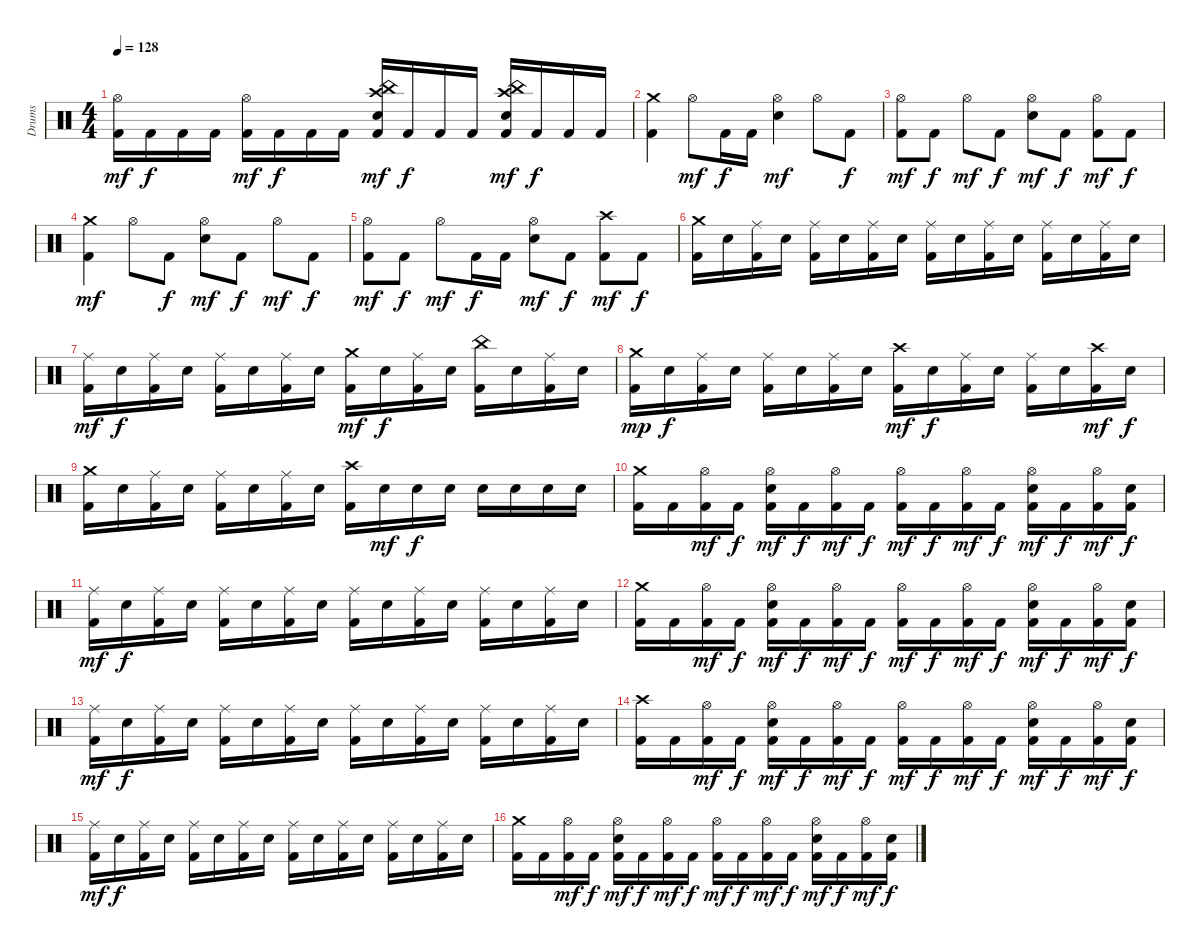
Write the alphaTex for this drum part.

\track ("Drums" "Drums") {instrument percussion}
\staff {score}
\articulation defaults
\ts (4 4)
\tempo 128
\clef neutral
\ks c
("Hi-Hat (open)" "Kick (hit) 2").16{dy mf} "Kick (hit) 2".16{dy f} "Kick (hit) 2".16 "Kick (hit) 2".16 ("Hi-Hat (open)" "Kick (hit) 2").16{dy mf} "Kick (hit) 2".16{dy f} "Kick (hit) 2".16 "Kick (hit) 2".16 ("Crash high (hit)" "China (hit)" "Electric Snare (hit)" "Kick (hit) 2").16{dy mf} "Kick (hit) 2".16{dy f} "Kick (hit) 2".16 "Kick (hit) 2".16 ("Crash high (hit)" "China (hit)" "Electric Snare (hit)" "Kick (hit) 2").16{dy mf} "Kick (hit) 2".16{dy f} "Kick (hit) 2".16 "Kick (hit) 2".16 |
("Crash medium (hit)" "Kick (hit) 2").4 "Hi-Hat (open)".8{dy mf} "Kick (hit) 2".16{dy f} "Kick (hit) 2".16 ("Hi-Hat (open)" "Electric Snare (hit)").4{dy mf} "Hi-Hat (open)".8 "Kick (hit) 2".8{dy f} |
("Hi-Hat (open)" "Kick (hit) 2").8{dy mf} "Kick (hit) 2".8{dy f} "Hi-Hat (open)".8{dy mf} "Kick (hit) 2".8{dy f} ("Hi-Hat (open)" "Electric Snare (hit)").8{dy mf} "Kick (hit) 2".8{dy f} ("Hi-Hat (open)" "Kick (hit) 2").8{dy mf} "Kick (hit) 2".8{dy f} |
("Crash medium (hit)" "Kick (hit) 2").4{dy mf} "Hi-Hat (open)".8 "Kick (hit) 2".8{dy f} ("Hi-Hat (open)" "Electric Snare (hit)").8{dy mf} "Kick (hit) 2".8{dy f} "Hi-Hat (open)".8{dy mf} "Kick (hit) 2".8{dy f} |
("Hi-Hat (open)" "Kick (hit) 2").8{dy mf} "Kick (hit) 2".8{dy f} "Hi-Hat (open)".8{dy mf} "Kick (hit) 2".16{dy f} "Kick (hit) 2".16 ("Hi-Hat (open)" "Electric Snare (hit)").8{dy mf} "Kick (hit) 2".8{dy f} ("Crash high (hit)" "Kick (hit) 2").8{dy mf} "Kick (hit) 2".8{dy f} |
("Crash medium (hit)" "Kick (hit) 2").16 "Electric Snare (hit)".16 ("Ride (middle)" "Kick (hit) 2").16 "Electric Snare (hit)".16 ("Ride (middle)" "Kick (hit) 2").16 "Electric Snare (hit)".16 ("Ride (middle)" "Kick (hit) 2").16 "Electric Snare (hit)".16 ("Ride (middle)" "Kick (hit) 2").16 "Electric Snare (hit)".16 ("Ride (middle)" "Kick (hit) 2").16 "Electric Snare (hit)".16 ("Ride (middle)" "Kick (hit) 2").16 "Electric Snare (hit)".16 ("Ride (middle)" "Kick (hit) 2").16 "Electric Snare (hit)".16 |
("Ride (middle)" "Kick (hit) 2").16{dy mf} "Electric Snare (hit)".16{dy f} ("Ride (middle)" "Kick (hit) 2").16 "Electric Snare (hit)".16 ("Ride (middle)" "Kick (hit) 2").16 "Electric Snare (hit)".16 ("Ride (middle)" "Kick (hit) 2").16 "Electric Snare (hit)".16 ("Crash medium (hit)" "Kick (hit) 2").16{dy mf} "Electric Snare (hit)".16{dy f} ("Ride (middle)" "Kick (hit) 2").16 "Electric Snare (hit)".16 ("China (hit)" "Kick (hit) 2").16 "Electric Snare (hit)".16 ("Ride (middle)" "Kick (hit) 2").16 "Electric Snare (hit)".16 |
("Crash medium (hit)" "Kick (hit) 2").16{dy mp} "Electric Snare (hit)".16{dy f} ("Ride (middle)" "Kick (hit) 2").16 "Electric Snare (hit)".16 ("Ride (middle)" "Kick (hit) 2").16 "Electric Snare (hit)".16 ("Ride (middle)" "Kick (hit) 2").16 "Electric Snare (hit)".16 ("Crash high (hit)" "Kick (hit) 2").16{dy mf} "Electric Snare (hit)".16{dy f} ("Ride (middle)" "Kick (hit) 2").16 "Electric Snare (hit)".16 ("Ride (middle)" "Kick (hit) 2").16 "Electric Snare (hit)".16 ("Crash high (hit)" "Kick (hit) 2").16{dy mf} "Electric Snare (hit)".16{dy f} |
("Crash medium (hit)" "Kick (hit) 2").16 "Electric Snare (hit)".16 ("Ride (middle)" "Kick (hit) 2").16 "Electric Snare (hit)".16 ("Ride (middle)" "Kick (hit) 2").16 "Electric Snare (hit)".16 ("Ride (middle)" "Kick (hit) 2").16 "Electric Snare (hit)".16 ("Crash high (hit)" "Kick (hit) 2").16 "Electric Snare (hit)".16{dy mf} "Electric Snare (hit)".16{dy f} "Electric Snare (hit)".16 "Electric Snare (hit)".16 "Electric Snare (hit)".16 "Electric Snare (hit)".16 "Electric Snare (hit)".16 |
("Crash medium (hit)" "Kick (hit) 2").16 "Kick (hit) 2".16 ("Hi-Hat (open)" "Kick (hit) 2").16{dy mf} "Kick (hit) 2".16{dy f} ("Hi-Hat (open)" "Electric Snare (hit)" "Kick (hit) 2").16{dy mf} "Kick (hit) 2".16{dy f} ("Hi-Hat (open)" "Kick (hit) 2").16{dy mf} "Kick (hit) 2".16{dy f} ("Hi-Hat (open)" "Kick (hit) 2").16{dy mf} "Kick (hit) 2".16{dy f} ("Hi-Hat (open)" "Kick (hit) 2").16{dy mf} "Kick (hit) 2".16{dy f} ("Hi-Hat (open)" "Electric Snare (hit)" "Kick (hit) 2").16{dy mf} "Kick (hit) 2".16{dy f} ("Hi-Hat (open)" "Kick (hit) 2").16{dy mf} ("Electric Snare (hit)" "Kick (hit) 2").16{dy f} |
("Ride (middle)" "Kick (hit) 2").16{dy mf} "Electric Snare (hit)".16{dy f} ("Ride (middle)" "Kick (hit) 2").16 "Electric Snare (hit)".16 ("Ride (middle)" "Kick (hit) 2").16 "Electric Snare (hit)".16 ("Ride (middle)" "Kick (hit) 2").16 "Electric Snare (hit)".16 ("Ride (middle)" "Kick (hit) 2").16 "Electric Snare (hit)".16 ("Ride (middle)" "Kick (hit) 2").16 "Electric Snare (hit)".16 ("Ride (middle)" "Kick (hit) 2").16 "Electric Snare (hit)".16 ("Ride (middle)" "Kick (hit) 2").16 "Electric Snare (hit)".16 |
("Crash medium (hit)" "Kick (hit) 2").16 "Kick (hit) 2".16 ("Hi-Hat (open)" "Kick (hit) 2").16{dy mf} "Kick (hit) 2".16{dy f} ("Hi-Hat (open)" "Electric Snare (hit)" "Kick (hit) 2").16{dy mf} "Kick (hit) 2".16{dy f} ("Hi-Hat (open)" "Kick (hit) 2").16{dy mf} "Kick (hit) 2".16{dy f} ("Hi-Hat (open)" "Kick (hit) 2").16{dy mf} "Kick (hit) 2".16{dy f} ("Hi-Hat (open)" "Kick (hit) 2").16{dy mf} "Kick (hit) 2".16{dy f} ("Hi-Hat (open)" "Electric Snare (hit)" "Kick (hit) 2").16{dy mf} "Kick (hit) 2".16{dy f} ("Hi-Hat (open)" "Kick (hit) 2").16{dy mf} ("Electric Snare (hit)" "Kick (hit) 2").16{dy f} |
("Ride (middle)" "Kick (hit) 2").16{dy mf} "Electric Snare (hit)".16{dy f} ("Ride (middle)" "Kick (hit) 2").16 "Electric Snare (hit)".16 ("Ride (middle)" "Kick (hit) 2").16 "Electric Snare (hit)".16 ("Ride (middle)" "Kick (hit) 2").16 "Electric Snare (hit)".16 ("Ride (middle)" "Kick (hit) 2").16 "Electric Snare (hit)".16 ("Ride (middle)" "Kick (hit) 2").16 "Electric Snare (hit)".16 ("Ride (middle)" "Kick (hit) 2").16 "Electric Snare (hit)".16 ("Ride (middle)" "Kick (hit) 2").16 "Electric Snare (hit)".16 |
("Crash high (hit)" "Kick (hit) 2").16 "Kick (hit) 2".16 ("Hi-Hat (open)" "Kick (hit) 2").16{dy mf} "Kick (hit) 2".16{dy f} ("Hi-Hat (open)" "Electric Snare (hit)" "Kick (hit) 2").16{dy mf} "Kick (hit) 2".16{dy f} ("Hi-Hat (open)" "Kick (hit) 2").16{dy mf} "Kick (hit) 2".16{dy f} ("Hi-Hat (open)" "Kick (hit) 2").16{dy mf} "Kick (hit) 2".16{dy f} ("Hi-Hat (open)" "Kick (hit) 2").16{dy mf} "Kick (hit) 2".16{dy f} ("Hi-Hat (open)" "Electric Snare (hit)" "Kick (hit) 2").16{dy mf} "Kick (hit) 2".16{dy f} ("Hi-Hat (open)" "Kick (hit) 2").16{dy mf} ("Electric Snare (hit)" "Kick (hit) 2").16{dy f} |
("Ride (middle)" "Kick (hit) 2").16{dy mf} "Electric Snare (hit)".16{dy f} ("Ride (middle)" "Kick (hit) 2").16 "Electric Snare (hit)".16 ("Ride (middle)" "Kick (hit) 2").16 "Electric Snare (hit)".16 ("Ride (middle)" "Kick (hit) 2").16 "Electric Snare (hit)".16 ("Ride (middle)" "Kick (hit) 2").16 "Electric Snare (hit)".16 ("Ride (middle)" "Kick (hit) 2").16 "Electric Snare (hit)".16 ("Ride (middle)" "Kick (hit) 2").16 "Electric Snare (hit)".16 ("Ride (middle)" "Kick (hit) 2").16 "Electric Snare (hit)".16 |
("Crash medium (hit)" "Kick (hit) 2").16 "Kick (hit) 2".16 ("Hi-Hat (open)" "Kick (hit) 2").16{dy mf} "Kick (hit) 2".16{dy f} ("Hi-Hat (open)" "Electric Snare (hit)" "Kick (hit) 2").16{dy mf} "Kick (hit) 2".16{dy f} ("Hi-Hat (open)" "Kick (hit) 2").16{dy mf} "Kick (hit) 2".16{dy f} ("Hi-Hat (open)" "Kick (hit) 2").16{dy mf} "Kick (hit) 2".16{dy f} ("Hi-Hat (open)" "Kick (hit) 2").16{dy mf} "Kick (hit) 2".16{dy f} ("Hi-Hat (open)" "Electric Snare (hit)" "Kick (hit) 2").16{dy mf} "Kick (hit) 2".16{dy f} ("Hi-Hat (open)" "Kick (hit) 2").16{dy mf} ("Electric Snare (hit)" "Kick (hit) 2").16{dy f}
